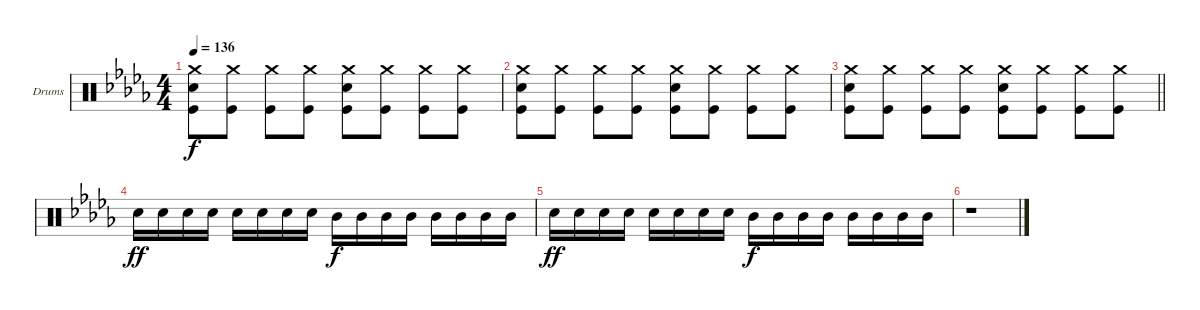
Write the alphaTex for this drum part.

\bracketExtendMode groupsimilarinstruments
\firstSystemTrackNameOrientation horizontal
\otherSystemsTrackNameOrientation horizontal
\track ("Fabrizio Moretti" "Drums") {instrument percussion}
\staff {score}
\articulation defaults
\ts (4 4)
\tempo 136
\clef neutral
\ks db
("Crash medium (hit)" "Snare (hit) 2" "Kick (hit)").8{dy f} ("Crash medium (hit)" "Kick (hit)").8 ("Crash medium (hit)" "Kick (hit)").8 ("Crash medium (hit)" "Kick (hit)").8 ("Crash medium (hit)" "Snare (hit) 2" "Kick (hit)").8 ("Crash medium (hit)" "Kick (hit)").8 ("Crash medium (hit)" "Kick (hit)").8 ("Crash medium (hit)" "Kick (hit)").8 |
("Crash medium (hit)" "Snare (hit) 2" "Kick (hit)").8 ("Crash medium (hit)" "Kick (hit)").8 ("Crash medium (hit)" "Kick (hit)").8 ("Crash medium (hit)" "Kick (hit)").8 ("Crash medium (hit)" "Snare (hit) 2" "Kick (hit)").8 ("Crash medium (hit)" "Kick (hit)").8 ("Crash medium (hit)" "Kick (hit)").8 ("Crash medium (hit)" "Kick (hit)").8 |
\barLineRight lightlight
("Crash medium (hit)" "Snare (hit) 2" "Kick (hit)").8 ("Crash medium (hit)" "Kick (hit)").8 ("Crash medium (hit)" "Kick (hit)").8 ("Crash medium (hit)" "Kick (hit)").8 ("Crash medium (hit)" "Snare (hit) 2" "Kick (hit)").8 ("Crash medium (hit)" "Kick (hit)").8 ("Crash medium (hit)" "Kick (hit)").8 ("Crash medium (hit)" "Kick (hit)").8 |
"Snare (hit) 2".16{dy ff} "Snare (hit) 2".16 "Snare (hit) 2".16 "Snare (hit) 2".16 "Snare (hit) 2".16 "Snare (hit) 2".16 "Snare (hit) 2".16 "Snare (hit) 2".16 "Mid Tom (hit)".16{dy f} "Mid Tom (hit)".16 "Mid Tom (hit)".16 "Mid Tom (hit)".16 "Mid Tom (hit)".16 "Mid Tom (hit)".16 "Mid Tom (hit)".16 "Mid Tom (hit)".16 |
"Snare (hit) 2".16{dy ff} "Snare (hit) 2".16 "Snare (hit) 2".16 "Snare (hit) 2".16 "Snare (hit) 2".16 "Snare (hit) 2".16 "Snare (hit) 2".16 "Snare (hit) 2".16 "Mid Tom (hit)".16{dy f} "Mid Tom (hit)".16 "Mid Tom (hit)".16 "Mid Tom (hit)".16 "Mid Tom (hit)".16 "Mid Tom (hit)".16 "Mid Tom (hit)".16 "Mid Tom (hit)".16 |
r.1
